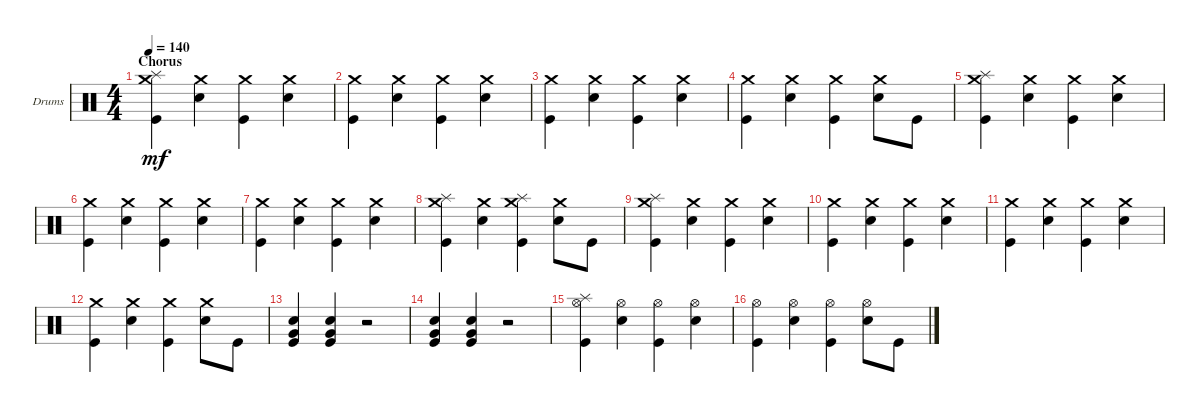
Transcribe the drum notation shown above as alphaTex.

\defaultSystemsLayout 4
\bracketExtendMode groupsimilarinstruments
\firstSystemTrackNameOrientation horizontal
\otherSystemsTrackNameOrientation horizontal
\track ("Drumkit" "Drums") {instrument percussion}
\staff {score}
\articulation defaults
\ts (4 4)
\section ("" "Chorus")
\tempo 140
\clef neutral
\ks c
("Splash (hit)" "Kick (hit)" "Crash medium (hit)").4{dy mf} ("Snare (hit) 2" "Crash medium (hit)").4 ("Kick (hit)" "Crash medium (hit)").4 ("Snare (hit) 2" "Crash medium (hit)").4 |
("Kick (hit)" "Crash medium (hit)").4 ("Snare (hit) 2" "Crash medium (hit)").4 ("Kick (hit)" "Crash medium (hit)").4 ("Snare (hit) 2" "Crash medium (hit)").4 |
("Kick (hit)" "Crash medium (hit)").4 ("Snare (hit) 2" "Crash medium (hit)").4 ("Kick (hit)" "Crash medium (hit)").4 ("Snare (hit) 2" "Crash medium (hit)").4 |
("Kick (hit)" "Crash medium (hit)").4 ("Snare (hit) 2" "Crash medium (hit)").4 ("Kick (hit)" "Crash medium (hit)").4 ("Snare (hit) 2" "Crash medium (hit)").8 "Kick (hit)".8 |
("Splash (hit)" "Kick (hit)" "Crash medium (hit)").4 ("Snare (hit) 2" "Crash medium (hit)").4 ("Kick (hit)" "Crash medium (hit)").4 ("Snare (hit) 2" "Crash medium (hit)").4 |
("Kick (hit)" "Crash medium (hit)").4 ("Snare (hit) 2" "Crash medium (hit)").4 ("Kick (hit)" "Crash medium (hit)").4 ("Snare (hit) 2" "Crash medium (hit)").4 |
("Kick (hit)" "Crash medium (hit)").4 ("Snare (hit) 2" "Crash medium (hit)").4 ("Kick (hit)" "Crash medium (hit)").4 ("Snare (hit) 2" "Crash medium (hit)").4 |
("Kick (hit)" "Crash medium (hit)" "Splash (hit)").4 ("Snare (hit) 2" "Crash medium (hit)").4 ("Kick (hit)" "Crash medium (hit)" "Splash (hit)").4 ("Snare (hit) 2" "Crash medium (hit)").8 "Kick (hit)".8 |
("Splash (hit)" "Kick (hit)" "Crash medium (hit)").4 ("Snare (hit) 2" "Crash medium (hit)").4 ("Kick (hit)" "Crash medium (hit)").4 ("Snare (hit) 2" "Crash medium (hit)").4 |
("Kick (hit)" "Crash medium (hit)").4 ("Snare (hit) 2" "Crash medium (hit)").4 ("Kick (hit)" "Crash medium (hit)").4 ("Snare (hit) 2" "Crash medium (hit)").4 |
("Kick (hit)" "Crash medium (hit)").4 ("Snare (hit) 2" "Crash medium (hit)").4 ("Kick (hit)" "Crash medium (hit)").4 ("Snare (hit) 2" "Crash medium (hit)").4 |
("Kick (hit)" "Crash medium (hit)").4 ("Snare (hit) 2" "Crash medium (hit)").4 ("Kick (hit)" "Crash medium (hit)").4 ("Snare (hit) 2" "Crash medium (hit)").8 "Kick (hit)".8 |
("Kick (hit)" "Snare (hit) 2" "Very Low Tom (hit)").4 ("Snare (hit) 2" "Kick (hit)" "Very Low Tom (hit)").4 r.2 |
("Kick (hit)" "Snare (hit) 2" "Very Low Tom (hit)").4 ("Snare (hit) 2" "Kick (hit)" "Very Low Tom (hit)").4 r.2 |
("Splash (hit)" "Hi-Hat (open)" "Kick (hit)").4 ("Hi-Hat (open)" "Snare (hit) 2").4 ("Kick (hit)" "Hi-Hat (open)").4 ("Snare (hit) 2" "Hi-Hat (open)").4 |
("Hi-Hat (open)" "Kick (hit)").4 ("Hi-Hat (open)" "Snare (hit) 2").4 ("Kick (hit)" "Hi-Hat (open)").4 ("Snare (hit) 2" "Hi-Hat (open)").8 "Kick (hit)".8
